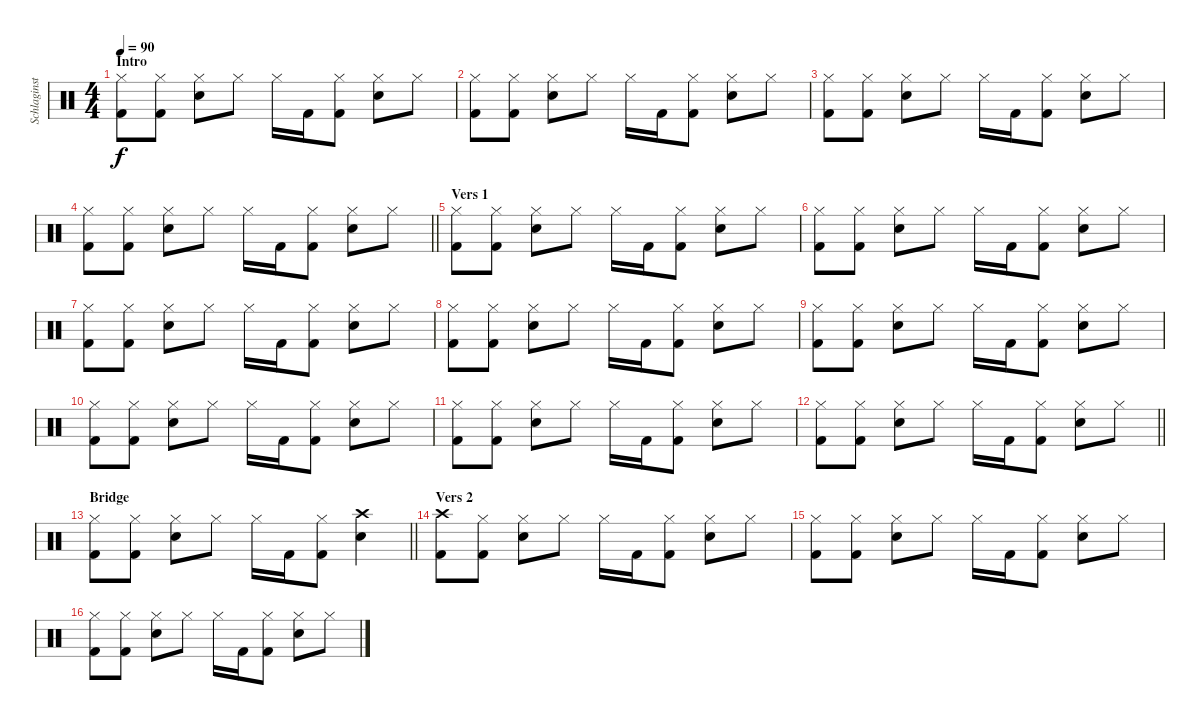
\track ("Schlaginstrumente - Auswahl" "Schlaginst") {instrument percussion}
\staff {score}
\articulation defaults
\ts (4 4)
\section ("" "Intro")
\tempo 90
\clef neutral
\ks c
("Hi-Hat (closed)" "Kick (hit) 2").8{dy f} ("Hi-Hat (closed)" "Kick (hit) 2").8 ("Hi-Hat (closed)" "Snare (hit) 2").8 "Hi-Hat (closed)".8 "Hi-Hat (closed)".16 "Kick (hit) 2".16 ("Hi-Hat (closed)" "Kick (hit) 2").8 ("Hi-Hat (closed)" "Snare (hit) 2").8 "Hi-Hat (closed)".8 |
("Hi-Hat (closed)" "Kick (hit) 2").8 ("Hi-Hat (closed)" "Kick (hit) 2").8 ("Hi-Hat (closed)" "Snare (hit) 2").8 "Hi-Hat (closed)".8 "Hi-Hat (closed)".16 "Kick (hit) 2".16 ("Hi-Hat (closed)" "Kick (hit) 2").8 ("Hi-Hat (closed)" "Snare (hit) 2").8 "Hi-Hat (closed)".8 |
("Hi-Hat (closed)" "Kick (hit) 2").8 ("Hi-Hat (closed)" "Kick (hit) 2").8 ("Hi-Hat (closed)" "Snare (hit) 2").8 "Hi-Hat (closed)".8 "Hi-Hat (closed)".16 "Kick (hit) 2".16 ("Hi-Hat (closed)" "Kick (hit) 2").8 ("Hi-Hat (closed)" "Snare (hit) 2").8 "Hi-Hat (closed)".8 |
\barLineRight lightlight
("Hi-Hat (closed)" "Kick (hit) 2").8 ("Hi-Hat (closed)" "Kick (hit) 2").8 ("Hi-Hat (closed)" "Snare (hit) 2").8 "Hi-Hat (closed)".8 "Hi-Hat (closed)".16 "Kick (hit) 2".16 ("Hi-Hat (closed)" "Kick (hit) 2").8 ("Hi-Hat (closed)" "Snare (hit) 2").8 "Hi-Hat (closed)".8 |
\section ("" "Vers 1")
("Hi-Hat (closed)" "Kick (hit) 2").8 ("Hi-Hat (closed)" "Kick (hit) 2").8 ("Hi-Hat (closed)" "Snare (hit) 2").8 "Hi-Hat (closed)".8 "Hi-Hat (closed)".16 "Kick (hit) 2".16 ("Hi-Hat (closed)" "Kick (hit) 2").8 ("Hi-Hat (closed)" "Snare (hit) 2").8 "Hi-Hat (closed)".8 |
("Hi-Hat (closed)" "Kick (hit) 2").8 ("Hi-Hat (closed)" "Kick (hit) 2").8 ("Hi-Hat (closed)" "Snare (hit) 2").8 "Hi-Hat (closed)".8 "Hi-Hat (closed)".16 "Kick (hit) 2".16 ("Hi-Hat (closed)" "Kick (hit) 2").8 ("Hi-Hat (closed)" "Snare (hit) 2").8 "Hi-Hat (closed)".8 |
("Hi-Hat (closed)" "Kick (hit) 2").8 ("Hi-Hat (closed)" "Kick (hit) 2").8 ("Hi-Hat (closed)" "Snare (hit) 2").8 "Hi-Hat (closed)".8 "Hi-Hat (closed)".16 "Kick (hit) 2".16 ("Hi-Hat (closed)" "Kick (hit) 2").8 ("Hi-Hat (closed)" "Snare (hit) 2").8 "Hi-Hat (closed)".8 |
("Hi-Hat (closed)" "Kick (hit) 2").8 ("Hi-Hat (closed)" "Kick (hit) 2").8 ("Hi-Hat (closed)" "Snare (hit) 2").8 "Hi-Hat (closed)".8 "Hi-Hat (closed)".16 "Kick (hit) 2".16 ("Hi-Hat (closed)" "Kick (hit) 2").8 ("Hi-Hat (closed)" "Snare (hit) 2").8 "Hi-Hat (closed)".8 |
("Hi-Hat (closed)" "Kick (hit) 2").8 ("Hi-Hat (closed)" "Kick (hit) 2").8 ("Hi-Hat (closed)" "Snare (hit) 2").8 "Hi-Hat (closed)".8 "Hi-Hat (closed)".16 "Kick (hit) 2".16 ("Hi-Hat (closed)" "Kick (hit) 2").8 ("Hi-Hat (closed)" "Snare (hit) 2").8 "Hi-Hat (closed)".8 |
("Hi-Hat (closed)" "Kick (hit) 2").8 ("Hi-Hat (closed)" "Kick (hit) 2").8 ("Hi-Hat (closed)" "Snare (hit) 2").8 "Hi-Hat (closed)".8 "Hi-Hat (closed)".16 "Kick (hit) 2".16 ("Hi-Hat (closed)" "Kick (hit) 2").8 ("Hi-Hat (closed)" "Snare (hit) 2").8 "Hi-Hat (closed)".8 |
("Hi-Hat (closed)" "Kick (hit) 2").8 ("Hi-Hat (closed)" "Kick (hit) 2").8 ("Hi-Hat (closed)" "Snare (hit) 2").8 "Hi-Hat (closed)".8 "Hi-Hat (closed)".16 "Kick (hit) 2".16 ("Hi-Hat (closed)" "Kick (hit) 2").8 ("Hi-Hat (closed)" "Snare (hit) 2").8 "Hi-Hat (closed)".8 |
\barLineRight lightlight
("Hi-Hat (closed)" "Kick (hit) 2").8 ("Hi-Hat (closed)" "Kick (hit) 2").8 ("Hi-Hat (closed)" "Snare (hit) 2").8 "Hi-Hat (closed)".8 "Hi-Hat (closed)".16 "Kick (hit) 2".16 ("Hi-Hat (closed)" "Kick (hit) 2").8 ("Hi-Hat (closed)" "Snare (hit) 2").8 "Hi-Hat (closed)".8 |
\section ("" "Bridge")
\barLineRight lightlight
("Hi-Hat (closed)" "Kick (hit) 2").8 ("Hi-Hat (closed)" "Kick (hit) 2").8 ("Hi-Hat (closed)" "Snare (hit) 2").8 "Hi-Hat (closed)".8 "Hi-Hat (closed)".16 "Kick (hit) 2".16 ("Hi-Hat (closed)" "Kick (hit) 2").8 ("Crash high (hit)" "Snare (hit) 2").4 |
\section ("" "Vers 2")
("Crash high (hit)" "Kick (hit) 2").8 ("Hi-Hat (closed)" "Kick (hit) 2").8 ("Hi-Hat (closed)" "Snare (hit) 2").8 "Hi-Hat (closed)".8 "Hi-Hat (closed)".16 "Kick (hit) 2".16 ("Hi-Hat (closed)" "Kick (hit) 2").8 ("Hi-Hat (closed)" "Snare (hit) 2").8 "Hi-Hat (closed)".8 |
("Hi-Hat (closed)" "Kick (hit) 2").8 ("Hi-Hat (closed)" "Kick (hit) 2").8 ("Hi-Hat (closed)" "Snare (hit) 2").8 "Hi-Hat (closed)".8 "Hi-Hat (closed)".16 "Kick (hit) 2".16 ("Hi-Hat (closed)" "Kick (hit) 2").8 ("Hi-Hat (closed)" "Snare (hit) 2").8 "Hi-Hat (closed)".8 |
("Hi-Hat (closed)" "Kick (hit) 2").8 ("Hi-Hat (closed)" "Kick (hit) 2").8 ("Hi-Hat (closed)" "Snare (hit) 2").8 "Hi-Hat (closed)".8 "Hi-Hat (closed)".16 "Kick (hit) 2".16 ("Hi-Hat (closed)" "Kick (hit) 2").8 ("Hi-Hat (closed)" "Snare (hit) 2").8 "Hi-Hat (closed)".8
